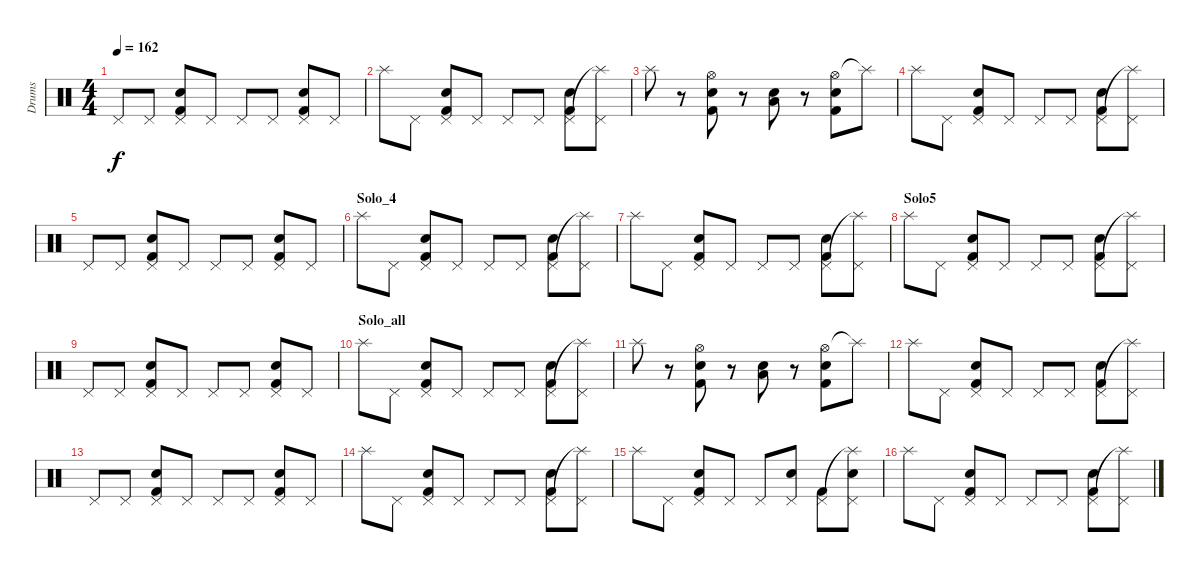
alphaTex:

\track ("Drums" "Drums") {instrument percussion}
\staff {score}
\articulation defaults
\ts (4 4)
\tempo 162
\clef neutral
\ks c "Pedal Hi-Hat (hit)".8{dy f} "Pedal Hi-Hat (hit)".8
("Pedal Hi-Hat (hit)" "Snare (hit) 2" "Kick (hit) 2").8 "Pedal Hi-Hat (hit)".8 "Pedal Hi-Hat (hit)".8 "Pedal Hi-Hat (hit)".8 ("Pedal Hi-Hat (hit)" "Snare (hit) 2" "Kick (hit) 2").8 "Pedal Hi-Hat (hit)".8 |
"Splash (hit)".8 "Pedal Hi-Hat (hit)".8 ("Pedal Hi-Hat (hit)" "Snare (hit) 2" "Kick (hit) 2").8 "Pedal Hi-Hat (hit)".8 "Pedal Hi-Hat (hit)".8 "Pedal Hi-Hat (hit)".8 ("Pedal Hi-Hat (hit)" "Snare (hit) 2" "Kick (hit) 2").8 ("Splash (hit)"{t} "Pedal Hi-Hat (hit)").8 |
"Splash (hit)".8 r.8 ("Hi-Hat (open)" "Snare (hit) 2" "Kick (hit) 2").8 r.8 ("Low Floor Tom (hit)" "Snare (hit) 2").8 r.8 ("Hi-Hat (open)" "Snare (hit) 2" "Kick (hit) 2").8 "Splash (hit)"{t}.8 |
"Splash (hit)".8 "Pedal Hi-Hat (hit)".8 ("Pedal Hi-Hat (hit)" "Snare (hit) 2" "Kick (hit) 2").8 "Pedal Hi-Hat (hit)".8 "Pedal Hi-Hat (hit)".8 "Pedal Hi-Hat (hit)".8 ("Pedal Hi-Hat (hit)" "Snare (hit) 2" "Kick (hit) 2").8 ("Splash (hit)"{t} "Pedal Hi-Hat (hit)").8 |
"Pedal Hi-Hat (hit)".8 "Pedal Hi-Hat (hit)".8 ("Pedal Hi-Hat (hit)" "Snare (hit) 2" "Kick (hit) 2").8 "Pedal Hi-Hat (hit)".8 "Pedal Hi-Hat (hit)".8 "Pedal Hi-Hat (hit)".8 ("Pedal Hi-Hat (hit)" "Snare (hit) 2" "Kick (hit) 2").8 "Pedal Hi-Hat (hit)".8 |
\section ("" "Solo_4")
"Splash (hit)".8 "Pedal Hi-Hat (hit)".8 ("Pedal Hi-Hat (hit)" "Snare (hit) 2" "Kick (hit) 2").8 "Pedal Hi-Hat (hit)".8 "Pedal Hi-Hat (hit)".8 "Pedal Hi-Hat (hit)".8 ("Pedal Hi-Hat (hit)" "Snare (hit) 2" "Kick (hit) 2").8 ("Splash (hit)"{t} "Pedal Hi-Hat (hit)").8 |
"Splash (hit)".8 "Pedal Hi-Hat (hit)".8 ("Pedal Hi-Hat (hit)" "Snare (hit) 2" "Kick (hit) 2").8 "Pedal Hi-Hat (hit)".8 "Pedal Hi-Hat (hit)".8 "Pedal Hi-Hat (hit)".8 ("Pedal Hi-Hat (hit)" "Snare (hit) 2" "Kick (hit) 2").8 ("Splash (hit)"{t} "Pedal Hi-Hat (hit)").8 |
\section ("" "Solo5")
"Splash (hit)".8 "Pedal Hi-Hat (hit)".8 ("Pedal Hi-Hat (hit)" "Snare (hit) 2" "Kick (hit) 2").8 "Pedal Hi-Hat (hit)".8 "Pedal Hi-Hat (hit)".8 "Pedal Hi-Hat (hit)".8 ("Pedal Hi-Hat (hit)" "Snare (hit) 2" "Kick (hit) 2").8 ("Splash (hit)"{t} "Pedal Hi-Hat (hit)").8 |
"Pedal Hi-Hat (hit)".8 "Pedal Hi-Hat (hit)".8 ("Pedal Hi-Hat (hit)" "Snare (hit) 2" "Kick (hit) 2").8 "Pedal Hi-Hat (hit)".8 "Pedal Hi-Hat (hit)".8 "Pedal Hi-Hat (hit)".8 ("Pedal Hi-Hat (hit)" "Snare (hit) 2" "Kick (hit) 2").8 "Pedal Hi-Hat (hit)".8 |
\section ("" "Solo_all")
"Splash (hit)".8 "Pedal Hi-Hat (hit)".8 ("Pedal Hi-Hat (hit)" "Snare (hit) 2" "Kick (hit) 2").8 "Pedal Hi-Hat (hit)".8 "Pedal Hi-Hat (hit)".8 "Pedal Hi-Hat (hit)".8 ("Pedal Hi-Hat (hit)" "Snare (hit) 2" "Kick (hit) 2").8 ("Splash (hit)"{t} "Pedal Hi-Hat (hit)").8 |
"Splash (hit)".8 r.8 ("Hi-Hat (open)" "Snare (hit) 2" "Kick (hit) 2").8 r.8 ("Low Tom (hit)" "Snare (hit) 2").8 r.8 ("Hi-Hat (open)" "Snare (hit) 2" "Kick (hit) 2").8 "Splash (hit)"{t}.8 |
"Splash (hit)".8 "Pedal Hi-Hat (hit)".8 ("Pedal Hi-Hat (hit)" "Snare (hit) 2" "Kick (hit) 2").8 "Pedal Hi-Hat (hit)".8 "Pedal Hi-Hat (hit)".8 "Pedal Hi-Hat (hit)".8 ("Pedal Hi-Hat (hit)" "Snare (hit) 2" "Kick (hit) 2").8 ("Splash (hit)"{t} "Pedal Hi-Hat (hit)").8 |
"Pedal Hi-Hat (hit)".8 "Pedal Hi-Hat (hit)".8 ("Pedal Hi-Hat (hit)" "Snare (hit) 2" "Kick (hit) 2").8 "Pedal Hi-Hat (hit)".8 "Pedal Hi-Hat (hit)".8 "Pedal Hi-Hat (hit)".8 ("Pedal Hi-Hat (hit)" "Snare (hit) 2" "Kick (hit) 2").8 "Pedal Hi-Hat (hit)".8 |
"Splash (hit)".8 "Pedal Hi-Hat (hit)".8 ("Pedal Hi-Hat (hit)" "Snare (hit) 2" "Kick (hit) 2").8 "Pedal Hi-Hat (hit)".8 "Pedal Hi-Hat (hit)".8 "Pedal Hi-Hat (hit)".8 ("Pedal Hi-Hat (hit)" "Snare (hit) 2" "Kick (hit) 2").8 ("Splash (hit)"{t} "Pedal Hi-Hat (hit)").8 |
"Splash (hit)".8 "Pedal Hi-Hat (hit)".8 ("Pedal Hi-Hat (hit)" "Snare (hit) 2" "Kick (hit) 2").8 "Pedal Hi-Hat (hit)".8 "Pedal Hi-Hat (hit)".8 ("Pedal Hi-Hat (hit)" "Snare (hit) 2").8 ("Pedal Hi-Hat (hit)" "Kick (hit) 2").8 ("Splash (hit)"{t} "Pedal Hi-Hat (hit)" "Snare (hit) 2").8 |
"Splash (hit)".8 "Pedal Hi-Hat (hit)".8 ("Pedal Hi-Hat (hit)" "Snare (hit) 2" "Kick (hit) 2").8 "Pedal Hi-Hat (hit)".8 "Pedal Hi-Hat (hit)".8 "Pedal Hi-Hat (hit)".8 ("Pedal Hi-Hat (hit)" "Snare (hit) 2" "Kick (hit) 2").8 ("Splash (hit)"{t} "Pedal Hi-Hat (hit)").8
